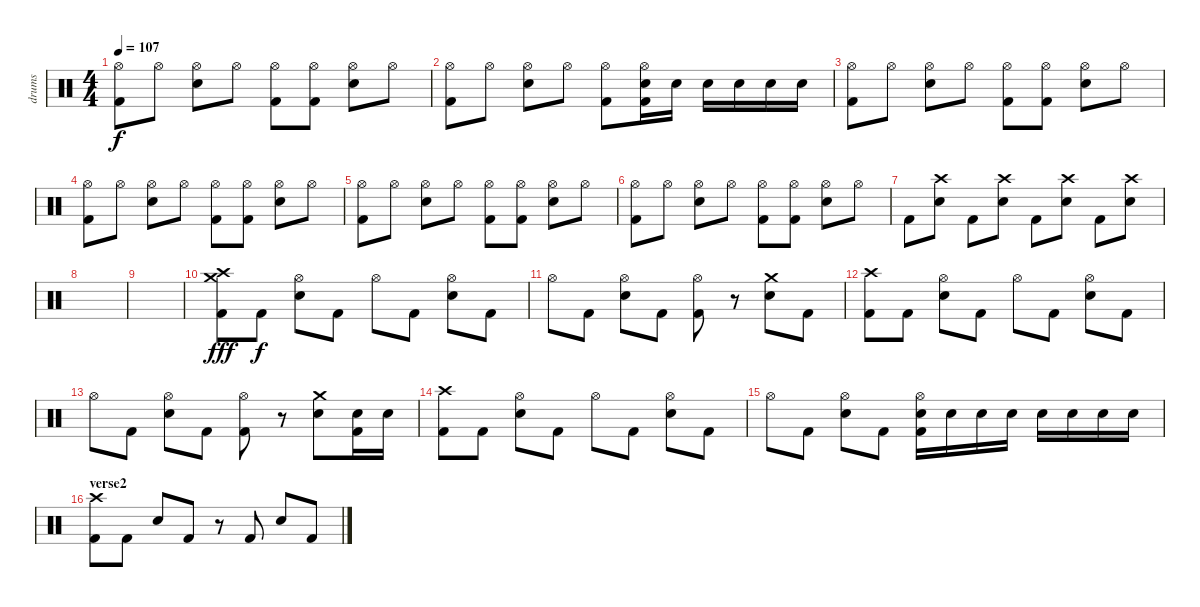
\track ("drums" "drums") {instrument percussion}
\staff {score}
\articulation defaults
\ts (4 4)
\tempo 107
\clef neutral
\ks c
("Hi-Hat (open)" "Kick (hit) 2").8{dy f} "Hi-Hat (open)".8 ("Hi-Hat (open)" "Electric Snare (hit)").8 "Hi-Hat (open)".8 ("Hi-Hat (open)" "Kick (hit) 2").8 ("Hi-Hat (open)" "Kick (hit) 2").8 ("Hi-Hat (open)" "Electric Snare (hit)").8 "Hi-Hat (open)".8 |
("Hi-Hat (open)" "Kick (hit) 2").8 "Hi-Hat (open)".8 ("Hi-Hat (open)" "Electric Snare (hit)").8 "Hi-Hat (open)".8 ("Hi-Hat (open)" "Kick (hit) 2").8 ("Hi-Hat (open)" "Electric Snare (hit)" "Kick (hit) 2").16 "Electric Snare (hit)".16 "Electric Snare (hit)".16 "Electric Snare (hit)".16 "Electric Snare (hit)".16 "Electric Snare (hit)".16 |
("Hi-Hat (open)" "Kick (hit) 2").8 "Hi-Hat (open)".8 ("Hi-Hat (open)" "Electric Snare (hit)").8 "Hi-Hat (open)".8 ("Hi-Hat (open)" "Kick (hit) 2").8 ("Hi-Hat (open)" "Kick (hit) 2").8 ("Hi-Hat (open)" "Electric Snare (hit)").8 "Hi-Hat (open)".8 |
("Hi-Hat (open)" "Kick (hit) 2").8 "Hi-Hat (open)".8 ("Hi-Hat (open)" "Electric Snare (hit)").8 "Hi-Hat (open)".8 ("Hi-Hat (open)" "Kick (hit) 2").8 ("Hi-Hat (open)" "Kick (hit) 2").8 ("Hi-Hat (open)" "Electric Snare (hit)").8 "Hi-Hat (open)".8 |
("Hi-Hat (open)" "Kick (hit) 2").8 "Hi-Hat (open)".8 ("Hi-Hat (open)" "Electric Snare (hit)").8 "Hi-Hat (open)".8 ("Hi-Hat (open)" "Kick (hit) 2").8 ("Hi-Hat (open)" "Kick (hit) 2").8 ("Hi-Hat (open)" "Electric Snare (hit)").8 "Hi-Hat (open)".8 |
("Hi-Hat (open)" "Kick (hit) 2").8 "Hi-Hat (open)".8 ("Hi-Hat (open)" "Electric Snare (hit)").8 "Hi-Hat (open)".8 ("Hi-Hat (open)" "Kick (hit) 2").8 ("Hi-Hat (open)" "Kick (hit) 2").8 ("Hi-Hat (open)" "Electric Snare (hit)").8 "Hi-Hat (open)".8 |
"Kick (hit) 2".8 ("Crash high (hit)" "Electric Snare (hit)").8 "Kick (hit) 2".8 ("Crash high (hit)" "Electric Snare (hit)").8 "Kick (hit) 2".8 ("Crash high (hit)" "Electric Snare (hit)").8 "Kick (hit) 2".8 ("Crash high (hit)" "Electric Snare (hit)").8 |
|
|
("Crash high (hit)" "Crash medium (hit)" "Kick (hit) 2").8{dy fff} "Kick (hit) 2".8{dy f} ("Hi-Hat (open)" "Electric Snare (hit)").8 "Kick (hit) 2".8 "Hi-Hat (open)".8 "Kick (hit) 2".8 ("Hi-Hat (open)" "Electric Snare (hit)").8 "Kick (hit) 2".8 |
"Hi-Hat (open)".8 "Kick (hit) 2".8 ("Hi-Hat (open)" "Electric Snare (hit)").8 "Kick (hit) 2".8 ("Hi-Hat (open)" "Kick (hit) 2").8 r.8 ("Crash medium (hit)" "Electric Snare (hit)").8 "Kick (hit) 2".8 |
("Crash high (hit)" "Kick (hit) 2").8 "Kick (hit) 2".8 ("Hi-Hat (open)" "Electric Snare (hit)").8 "Kick (hit) 2".8 "Hi-Hat (open)".8 "Kick (hit) 2".8 ("Hi-Hat (open)" "Electric Snare (hit)").8 "Kick (hit) 2".8 |
"Hi-Hat (open)".8 "Kick (hit) 2".8 ("Hi-Hat (open)" "Electric Snare (hit)").8 "Kick (hit) 2".8 ("Hi-Hat (open)" "Kick (hit) 2").8 r.8 ("Crash medium (hit)" "Electric Snare (hit)").8 ("Electric Snare (hit)" "Kick (hit) 2").16 "Electric Snare (hit)".16 |
("Crash high (hit)" "Kick (hit) 2").8 "Kick (hit) 2".8 ("Hi-Hat (open)" "Electric Snare (hit)").8 "Kick (hit) 2".8 "Hi-Hat (open)".8 "Kick (hit) 2".8 ("Hi-Hat (open)" "Electric Snare (hit)").8 "Kick (hit) 2".8 |
"Hi-Hat (open)".8 "Kick (hit) 2".8 ("Hi-Hat (open)" "Electric Snare (hit)").8 "Kick (hit) 2".8 ("Hi-Hat (open)" "Electric Snare (hit)" "Kick (hit) 2").16 "Electric Snare (hit)".16 "Electric Snare (hit)".16 "Electric Snare (hit)".16 "Electric Snare (hit)".16 "Electric Snare (hit)".16 "Electric Snare (hit)".16 "Electric Snare (hit)".16 |
\section ("" "verse2")
("Crash high (hit)" "Kick (hit) 2").8 "Kick (hit) 2".8 "Electric Snare (hit)".8 "Kick (hit) 2".8 r.8 "Kick (hit) 2".8 "Electric Snare (hit)".8 "Kick (hit) 2".8
